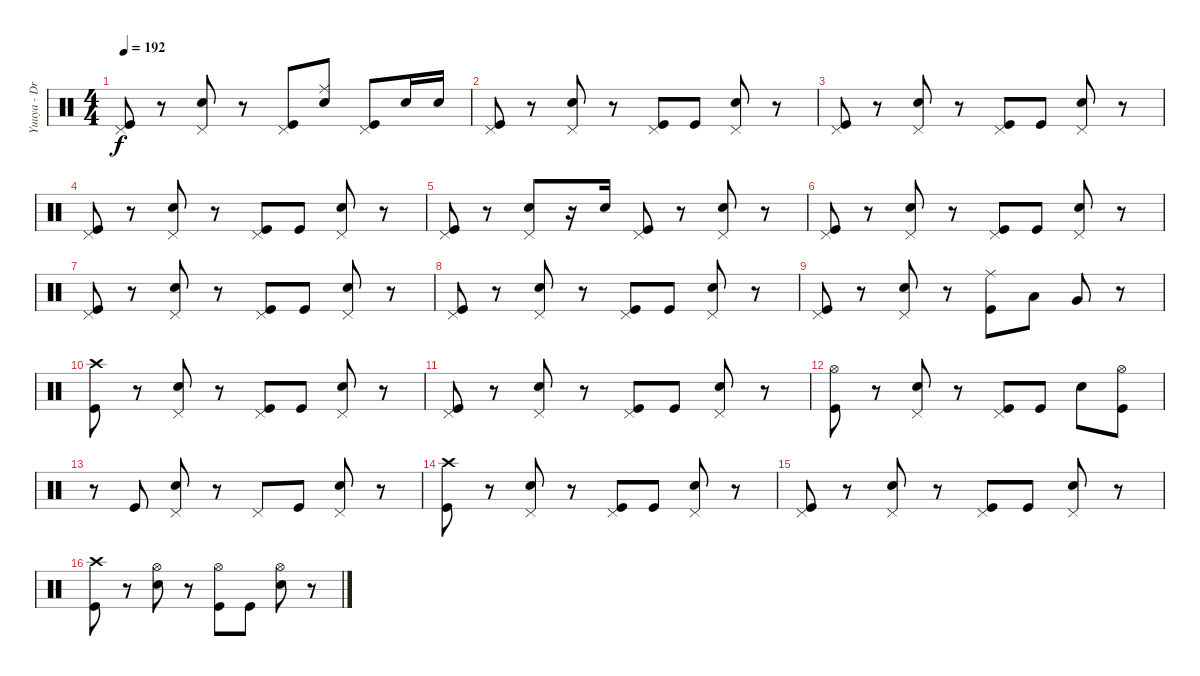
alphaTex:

\track ("Yuuya - Drums" "Yuuya - Dr") {instrument percussion}
\staff {score}
\articulation defaults
\ts (4 4)
\tempo 192
\clef neutral
\ks c
("Kick (hit)" "Pedal Hi-Hat (hit)").8{dy f} r.8 ("Electric Snare (hit)" "Pedal Hi-Hat (hit)").8 r.8 ("Kick (hit)" "Pedal Hi-Hat (hit)").8 ("Electric Snare (hit)" "Ride (middle)").8 ("Kick (hit)" "Pedal Hi-Hat (hit)").8 "Electric Snare (hit)".16 "Electric Snare (hit)".16 |
("Kick (hit)" "Pedal Hi-Hat (hit)").8 r.8 ("Electric Snare (hit)" "Pedal Hi-Hat (hit)").8 r.8 ("Kick (hit)" "Pedal Hi-Hat (hit)").8 "Kick (hit)".8 ("Electric Snare (hit)" "Pedal Hi-Hat (hit)").8 r.8 |
("Kick (hit)" "Pedal Hi-Hat (hit)").8 r.8 ("Electric Snare (hit)" "Pedal Hi-Hat (hit)").8 r.8 ("Kick (hit)" "Pedal Hi-Hat (hit)").8 "Kick (hit)".8 ("Electric Snare (hit)" "Pedal Hi-Hat (hit)").8 r.8 |
("Kick (hit)" "Pedal Hi-Hat (hit)").8 r.8 ("Electric Snare (hit)" "Pedal Hi-Hat (hit)").8 r.8 ("Kick (hit)" "Pedal Hi-Hat (hit)").8 "Kick (hit)".8 ("Electric Snare (hit)" "Pedal Hi-Hat (hit)").8 r.8 |
("Kick (hit)" "Pedal Hi-Hat (hit)").8 r.8 ("Electric Snare (hit)" "Pedal Hi-Hat (hit)").8 r.16 "Electric Snare (hit)".16 ("Kick (hit)" "Pedal Hi-Hat (hit)").8 r.8 ("Electric Snare (hit)" "Pedal Hi-Hat (hit)").8 r.8 |
("Kick (hit)" "Pedal Hi-Hat (hit)").8 r.8 ("Electric Snare (hit)" "Pedal Hi-Hat (hit)").8 r.8 ("Kick (hit)" "Pedal Hi-Hat (hit)").8 "Kick (hit)".8 ("Electric Snare (hit)" "Pedal Hi-Hat (hit)").8 r.8 |
("Kick (hit)" "Pedal Hi-Hat (hit)").8 r.8 ("Electric Snare (hit)" "Pedal Hi-Hat (hit)").8 r.8 ("Kick (hit)" "Pedal Hi-Hat (hit)").8 "Kick (hit)".8 ("Electric Snare (hit)" "Pedal Hi-Hat (hit)").8 r.8 |
("Kick (hit)" "Pedal Hi-Hat (hit)").8 r.8 ("Electric Snare (hit)" "Pedal Hi-Hat (hit)").8 r.8 ("Kick (hit)" "Pedal Hi-Hat (hit)").8 "Kick (hit)".8 ("Electric Snare (hit)" "Pedal Hi-Hat (hit)").8 r.8 |
("Kick (hit)" "Pedal Hi-Hat (hit)").8 r.8 ("Electric Snare (hit)" "Pedal Hi-Hat (hit)").8 r.8 ("Kick (hit)" "Ride (middle)").8 "Low Tom (hit)".8 "Very Low Tom (hit)".8 r.8 |
("Kick (hit)" "Crash high (hit)").8 r.8 ("Electric Snare (hit)" "Pedal Hi-Hat (hit)").8 r.8 ("Kick (hit)" "Pedal Hi-Hat (hit)").8 "Kick (hit)".8 ("Electric Snare (hit)" "Pedal Hi-Hat (hit)").8 r.8 |
("Kick (hit)" "Pedal Hi-Hat (hit)").8 r.8 ("Electric Snare (hit)" "Pedal Hi-Hat (hit)").8 r.8 ("Kick (hit)" "Pedal Hi-Hat (hit)").8 "Kick (hit)".8 ("Electric Snare (hit)" "Pedal Hi-Hat (hit)").8 r.8 |
("Kick (hit)" "Hi-Hat (open)").8 r.8 ("Electric Snare (hit)" "Pedal Hi-Hat (hit)").8 r.8 ("Kick (hit)" "Pedal Hi-Hat (hit)").8 "Kick (hit)".8 "Electric Snare (hit)".8 ("Kick (hit)" "Hi-Hat (open)").8 |
r.8 "Kick (hit)".8 ("Electric Snare (hit)" "Pedal Hi-Hat (hit)").8 r.8 "Pedal Hi-Hat (hit)".8 "Kick (hit)".8 ("Electric Snare (hit)" "Pedal Hi-Hat (hit)").8 r.8 |
("Kick (hit)" "Crash high (hit)").8 r.8 ("Electric Snare (hit)" "Pedal Hi-Hat (hit)").8 r.8 ("Kick (hit)" "Pedal Hi-Hat (hit)").8 "Kick (hit)".8 ("Electric Snare (hit)" "Pedal Hi-Hat (hit)").8 r.8 |
("Kick (hit)" "Pedal Hi-Hat (hit)").8 r.8 ("Electric Snare (hit)" "Pedal Hi-Hat (hit)").8 r.8 ("Kick (hit)" "Pedal Hi-Hat (hit)").8 "Kick (hit)".8 ("Electric Snare (hit)" "Pedal Hi-Hat (hit)").8 r.8 |
("Kick (hit)" "Crash high (hit)").8 r.8 ("Electric Snare (hit)" "Hi-Hat (open)").8 r.8 ("Kick (hit)" "Hi-Hat (open)").8 "Kick (hit)".8 ("Electric Snare (hit)" "Hi-Hat (open)").8 r.8
